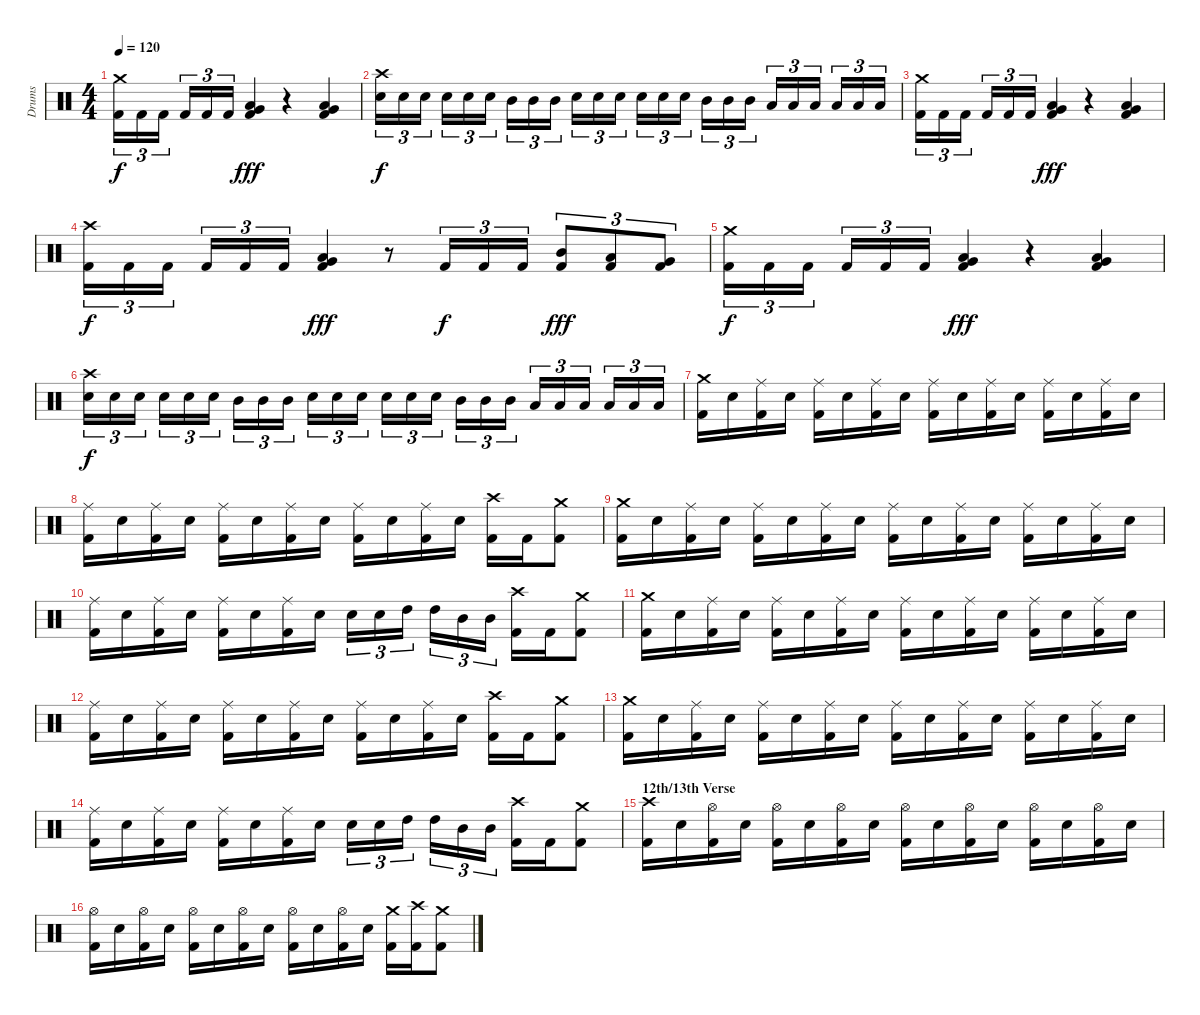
\track ("Drums" "Drums") {instrument percussion}
\staff {score}
\articulation defaults
\ts (4 4)
\tempo 120
\clef neutral
\ks c
("Kick (hit) 2" "Crash medium (hit)").16{tu (3 2) dy f} "Kick (hit) 2".16{tu (3 2)} "Kick (hit) 2".16{tu (3 2)} "Kick (hit) 2".16{tu (3 2)} "Kick (hit) 2".16{tu (3 2)} "Kick (hit) 2".16{tu (3 2)} ("Kick (hit) 2" "Low Tom (hit)" "Very Low Tom (hit)").4{dy fff} r.4 ("Kick (hit) 2" "Low Tom (hit)" "Very Low Tom (hit)").4 |
("Snare (hit) 2" "Crash high (hit)").16{tu (3 2) dy f} "Snare (hit) 2".16{tu (3 2)} "Snare (hit) 2".16{tu (3 2)} "Snare (hit) 2".16{tu (3 2)} "Snare (hit) 2".16{tu (3 2)} "Snare (hit) 2".16{tu (3 2)} "Mid Tom (hit)".16{tu (3 2)} "Mid Tom (hit)".16{tu (3 2)} "Mid Tom (hit)".16{tu (3 2)} "Snare (hit) 2".16{tu (3 2)} "Snare (hit) 2".16{tu (3 2)} "Snare (hit) 2".16{tu (3 2)} "Snare (hit) 2".16{tu (3 2)} "Snare (hit) 2".16{tu (3 2)} "Snare (hit) 2".16{tu (3 2)} "Mid Tom (hit)".16{tu (3 2)} "Mid Tom (hit)".16{tu (3 2)} "Mid Tom (hit)".16{tu (3 2)} "Low Tom (hit)".16{tu (3 2)} "Low Tom (hit)".16{tu (3 2)} "Low Tom (hit)".16{tu (3 2)} "Low Tom (hit)".16{tu (3 2)} "Low Tom (hit)".16{tu (3 2)} "Low Tom (hit)".16{tu (3 2)} |
("Kick (hit) 2" "Crash medium (hit)").16{tu (3 2)} "Kick (hit) 2".16{tu (3 2)} "Kick (hit) 2".16{tu (3 2)} "Kick (hit) 2".16{tu (3 2)} "Kick (hit) 2".16{tu (3 2)} "Kick (hit) 2".16{tu (3 2)} ("Kick (hit) 2" "Low Tom (hit)" "Very Low Tom (hit)").4{dy fff} r.4 ("Kick (hit) 2" "Low Tom (hit)" "Very Low Tom (hit)").4 |
("Kick (hit) 2" "Crash high (hit)").16{tu (3 2) dy f} "Kick (hit) 2".16{tu (3 2)} "Kick (hit) 2".16{tu (3 2)} "Kick (hit) 2".16{tu (3 2)} "Kick (hit) 2".16{tu (3 2)} "Kick (hit) 2".16{tu (3 2)} ("Kick (hit) 2" "Low Tom (hit)" "Very Low Tom (hit)").4{dy fff} r.8 "Kick (hit) 2".16{tu (3 2) dy f} "Kick (hit) 2".16{tu (3 2)} "Kick (hit) 2".16{tu (3 2)} ("Kick (hit) 2" "Mid Tom (hit)").8{tu (3 2) dy fff} ("Kick (hit) 2" "Low Tom (hit)").8{tu (3 2)} ("Kick (hit) 2" "Very Low Tom (hit)").8{tu (3 2)} |
("Kick (hit) 2" "Crash medium (hit)").16{tu (3 2) dy f} "Kick (hit) 2".16{tu (3 2)} "Kick (hit) 2".16{tu (3 2)} "Kick (hit) 2".16{tu (3 2)} "Kick (hit) 2".16{tu (3 2)} "Kick (hit) 2".16{tu (3 2)} ("Kick (hit) 2" "Low Tom (hit)" "Very Low Tom (hit)").4{dy fff} r.4 ("Kick (hit) 2" "Low Tom (hit)" "Very Low Tom (hit)").4 |
("Snare (hit) 2" "Crash high (hit)").16{tu (3 2) dy f} "Snare (hit) 2".16{tu (3 2)} "Snare (hit) 2".16{tu (3 2)} "Snare (hit) 2".16{tu (3 2)} "Snare (hit) 2".16{tu (3 2)} "Snare (hit) 2".16{tu (3 2)} "Mid Tom (hit)".16{tu (3 2)} "Mid Tom (hit)".16{tu (3 2)} "Mid Tom (hit)".16{tu (3 2)} "Snare (hit) 2".16{tu (3 2)} "Snare (hit) 2".16{tu (3 2)} "Snare (hit) 2".16{tu (3 2)} "Snare (hit) 2".16{tu (3 2)} "Snare (hit) 2".16{tu (3 2)} "Snare (hit) 2".16{tu (3 2)} "Mid Tom (hit)".16{tu (3 2)} "Mid Tom (hit)".16{tu (3 2)} "Mid Tom (hit)".16{tu (3 2)} "Low Tom (hit)".16{tu (3 2)} "Low Tom (hit)".16{tu (3 2)} "Low Tom (hit)".16{tu (3 2)} "Low Tom (hit)".16{tu (3 2)} "Low Tom (hit)".16{tu (3 2)} "Low Tom (hit)".16{tu (3 2)} |
("Kick (hit) 2" "Crash medium (hit)").16 "Electric Snare (hit)".16 ("Kick (hit) 2" "Ride (middle)").16 "Electric Snare (hit)".16 ("Kick (hit) 2" "Ride (middle)").16 "Electric Snare (hit)".16 ("Kick (hit) 2" "Ride (middle)").16 "Electric Snare (hit)".16 ("Kick (hit) 2" "Ride (middle)").16 "Electric Snare (hit)".16 ("Kick (hit) 2" "Ride (middle)").16 "Electric Snare (hit)".16 ("Kick (hit) 2" "Ride (middle)").16 "Electric Snare (hit)".16 ("Kick (hit) 2" "Ride (middle)").16 "Electric Snare (hit)".16 |
("Kick (hit) 2" "Ride (middle)").16 "Electric Snare (hit)".16 ("Kick (hit) 2" "Ride (middle)").16 "Electric Snare (hit)".16 ("Kick (hit) 2" "Ride (middle)").16 "Electric Snare (hit)".16 ("Kick (hit) 2" "Ride (middle)").16 "Electric Snare (hit)".16 ("Kick (hit) 2" "Ride (middle)").16 "Electric Snare (hit)".16 ("Kick (hit) 2" "Ride (middle)").16 "Electric Snare (hit)".16 ("Kick (hit) 2" "Crash high (hit)").16 "Kick (hit) 2".16 ("Kick (hit) 2" "Crash medium (hit)").8 |
("Kick (hit) 2" "Crash medium (hit)").16 "Electric Snare (hit)".16 ("Kick (hit) 2" "Ride (middle)").16 "Electric Snare (hit)".16 ("Kick (hit) 2" "Ride (middle)").16 "Electric Snare (hit)".16 ("Kick (hit) 2" "Ride (middle)").16 "Electric Snare (hit)".16 ("Kick (hit) 2" "Ride (middle)").16 "Electric Snare (hit)".16 ("Kick (hit) 2" "Ride (middle)").16 "Electric Snare (hit)".16 ("Kick (hit) 2" "Ride (middle)").16 "Electric Snare (hit)".16 ("Kick (hit) 2" "Ride (middle)").16 "Electric Snare (hit)".16 |
("Kick (hit) 2" "Ride (middle)").16 "Electric Snare (hit)".16 ("Kick (hit) 2" "Ride (middle)").16 "Electric Snare (hit)".16 ("Kick (hit) 2" "Ride (middle)").16 "Electric Snare (hit)".16 ("Kick (hit) 2" "Ride (middle)").16 "Electric Snare (hit)".16 "Electric Snare (hit)".16{tu (3 2)} "Electric Snare (hit)".16{tu (3 2)} "High Tom (hit)".16{tu (3 2)} "High Tom (hit)".16{tu (3 2)} "Mid Tom (hit)".16{tu (3 2)} "Mid Tom (hit)".16{tu (3 2)} ("Kick (hit) 2" "Crash high (hit)").16 "Kick (hit) 2".16 ("Kick (hit) 2" "Crash medium (hit)").8 |
("Kick (hit) 2" "Crash medium (hit)").16 "Electric Snare (hit)".16 ("Kick (hit) 2" "Ride (middle)").16 "Electric Snare (hit)".16 ("Kick (hit) 2" "Ride (middle)").16 "Electric Snare (hit)".16 ("Kick (hit) 2" "Ride (middle)").16 "Electric Snare (hit)".16 ("Kick (hit) 2" "Ride (middle)").16 "Electric Snare (hit)".16 ("Kick (hit) 2" "Ride (middle)").16 "Electric Snare (hit)".16 ("Kick (hit) 2" "Ride (middle)").16 "Electric Snare (hit)".16 ("Kick (hit) 2" "Ride (middle)").16 "Electric Snare (hit)".16 |
("Kick (hit) 2" "Ride (middle)").16 "Electric Snare (hit)".16 ("Kick (hit) 2" "Ride (middle)").16 "Electric Snare (hit)".16 ("Kick (hit) 2" "Ride (middle)").16 "Electric Snare (hit)".16 ("Kick (hit) 2" "Ride (middle)").16 "Electric Snare (hit)".16 ("Kick (hit) 2" "Ride (middle)").16 "Electric Snare (hit)".16 ("Kick (hit) 2" "Ride (middle)").16 "Electric Snare (hit)".16 ("Kick (hit) 2" "Crash high (hit)").16 "Kick (hit) 2".16 ("Kick (hit) 2" "Crash medium (hit)").8 |
("Kick (hit) 2" "Crash medium (hit)").16 "Electric Snare (hit)".16 ("Kick (hit) 2" "Ride (middle)").16 "Electric Snare (hit)".16 ("Kick (hit) 2" "Ride (middle)").16 "Electric Snare (hit)".16 ("Kick (hit) 2" "Ride (middle)").16 "Electric Snare (hit)".16 ("Kick (hit) 2" "Ride (middle)").16 "Electric Snare (hit)".16 ("Kick (hit) 2" "Ride (middle)").16 "Electric Snare (hit)".16 ("Kick (hit) 2" "Ride (middle)").16 "Electric Snare (hit)".16 ("Kick (hit) 2" "Ride (middle)").16 "Electric Snare (hit)".16 |
("Kick (hit) 2" "Ride (middle)").16 "Electric Snare (hit)".16 ("Kick (hit) 2" "Ride (middle)").16 "Electric Snare (hit)".16 ("Kick (hit) 2" "Ride (middle)").16 "Electric Snare (hit)".16 ("Kick (hit) 2" "Ride (middle)").16 "Electric Snare (hit)".16 "Electric Snare (hit)".16{tu (3 2)} "Electric Snare (hit)".16{tu (3 2)} "High Tom (hit)".16{tu (3 2)} "High Tom (hit)".16{tu (3 2)} "Mid Tom (hit)".16{tu (3 2)} "Mid Tom (hit)".16{tu (3 2)} ("Kick (hit) 2" "Crash high (hit)").16 "Kick (hit) 2".16 ("Kick (hit) 2" "Crash medium (hit)").8 |
\section ("" "12th/13th Verse")
("Kick (hit) 2" "Crash high (hit)").16 "Electric Snare (hit)".16 ("Kick (hit) 2" "Hi-Hat (open)").16 "Electric Snare (hit)".16 ("Kick (hit) 2" "Hi-Hat (open)").16 "Electric Snare (hit)".16 ("Kick (hit) 2" "Hi-Hat (open)").16 "Electric Snare (hit)".16 ("Kick (hit) 2" "Hi-Hat (open)").16 "Electric Snare (hit)".16 ("Kick (hit) 2" "Hi-Hat (open)").16 "Electric Snare (hit)".16 ("Kick (hit) 2" "Hi-Hat (open)").16 "Electric Snare (hit)".16 ("Kick (hit) 2" "Hi-Hat (open)").16 "Electric Snare (hit)".16 |
("Kick (hit) 2" "Hi-Hat (open)").16 "Electric Snare (hit)".16 ("Kick (hit) 2" "Hi-Hat (open)").16 "Electric Snare (hit)".16 ("Kick (hit) 2" "Hi-Hat (open)").16 "Electric Snare (hit)".16 ("Kick (hit) 2" "Hi-Hat (open)").16 "Electric Snare (hit)".16 ("Kick (hit) 2" "Hi-Hat (open)").16 "Electric Snare (hit)".16 ("Kick (hit) 2" "Hi-Hat (open)").16 "Electric Snare (hit)".16 ("Kick (hit) 2" "Crash medium (hit)").16 ("Kick (hit) 2" "Crash high (hit)").16 ("Kick (hit) 2" "Crash medium (hit)").8
